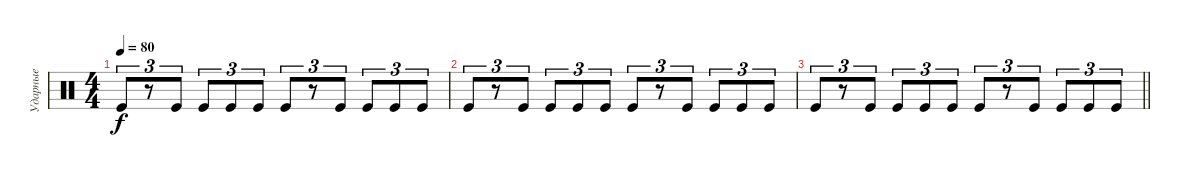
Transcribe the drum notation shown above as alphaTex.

\track ("Ударные" "Ударные") {instrument percussion}
\staff {score}
\articulation defaults
\ts (4 4)
\tempo 80
\clef neutral
\ks c "Kick (hit)".8{tu (3 2) dy f}
r.8{tu (3 2)} "Kick (hit)".8{tu (3 2)} "Kick (hit)".8{tu (3 2)} "Kick (hit)".8{tu (3 2)} "Kick (hit)".8{tu (3 2)} "Kick (hit)".8{tu (3 2)} r.8{tu (3 2)} "Kick (hit)".8{tu (3 2)} "Kick (hit)".8{tu (3 2)} "Kick (hit)".8{tu (3 2)} "Kick (hit)".8{tu (3 2)} |
"Kick (hit)".8{tu (3 2)} r.8{tu (3 2)} "Kick (hit)".8{tu (3 2)} "Kick (hit)".8{tu (3 2)} "Kick (hit)".8{tu (3 2)} "Kick (hit)".8{tu (3 2)} "Kick (hit)".8{tu (3 2)} r.8{tu (3 2)} "Kick (hit)".8{tu (3 2)} "Kick (hit)".8{tu (3 2)} "Kick (hit)".8{tu (3 2)} "Kick (hit)".8{tu (3 2)} |
\barLineRight lightlight "Kick (hit)".8{tu (3 2)}
r.8{tu (3 2)} "Kick (hit)".8{tu (3 2)} "Kick (hit)".8{tu (3 2)} "Kick (hit)".8{tu (3 2)} "Kick (hit)".8{tu (3 2)} "Kick (hit)".8{tu (3 2)} r.8{tu (3 2)} "Kick (hit)".8{tu (3 2)} "Kick (hit)".8{tu (3 2)} "Kick (hit)".8{tu (3 2)} "Kick (hit)".8{tu (3 2)}
